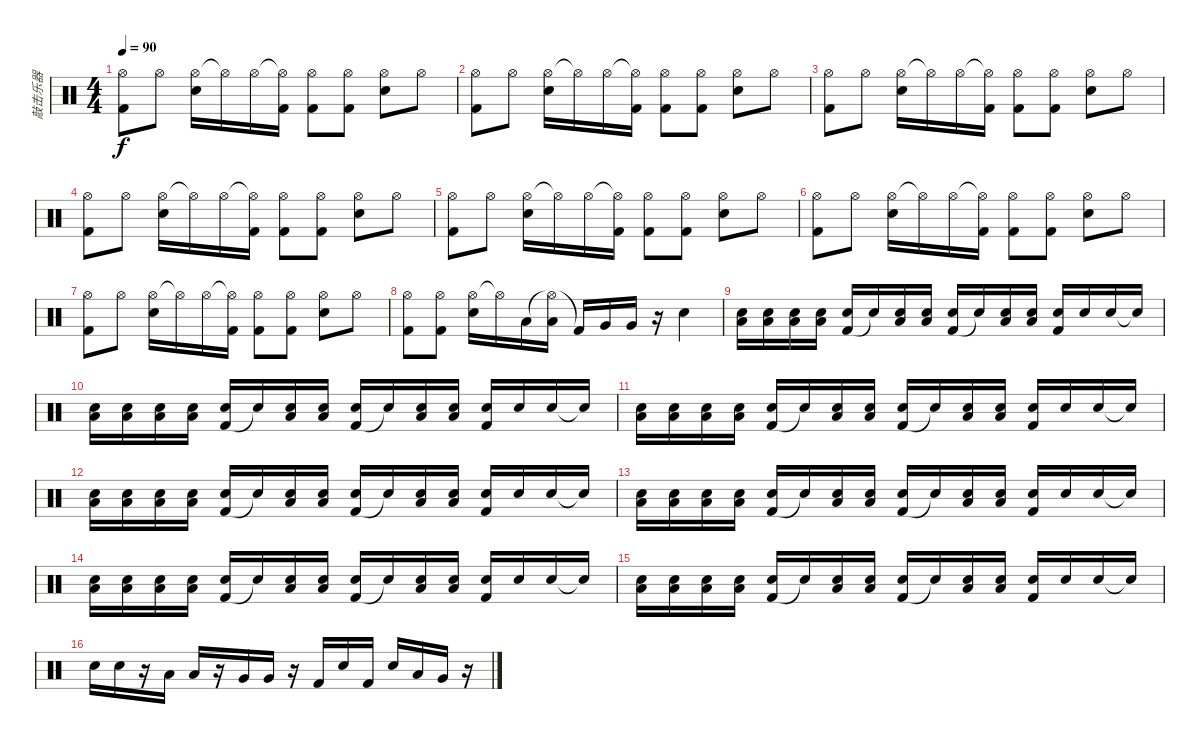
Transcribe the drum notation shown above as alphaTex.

\track ("敲击乐器" "敲击乐器") {instrument percussion}
\staff {score}
\articulation defaults
\ts (4 4)
\tempo 90
\clef neutral
\ks c
("Hi-Hat (open)" "Kick (hit) 2").8{dy f} "Hi-Hat (open)".8 ("Hi-Hat (open)" "Electric Snare (hit)").16 "Hi-Hat (open)"{t}.16 "Hi-Hat (open)".16 ("Hi-Hat (open)"{t} "Kick (hit) 2").16 ("Hi-Hat (open)" "Kick (hit) 2").8 ("Hi-Hat (open)" "Kick (hit) 2").8 ("Hi-Hat (open)" "Electric Snare (hit)").8 "Hi-Hat (open)".8 |
("Hi-Hat (open)" "Kick (hit) 2").8 "Hi-Hat (open)".8 ("Hi-Hat (open)" "Electric Snare (hit)").16 "Hi-Hat (open)"{t}.16 "Hi-Hat (open)".16 ("Hi-Hat (open)"{t} "Kick (hit) 2").16 ("Hi-Hat (open)" "Kick (hit) 2").8 ("Hi-Hat (open)" "Kick (hit) 2").8 ("Hi-Hat (open)" "Electric Snare (hit)").8 "Hi-Hat (open)".8 |
("Hi-Hat (open)" "Kick (hit) 2").8 "Hi-Hat (open)".8 ("Hi-Hat (open)" "Electric Snare (hit)").16 "Hi-Hat (open)"{t}.16 "Hi-Hat (open)".16 ("Hi-Hat (open)"{t} "Kick (hit) 2").16 ("Hi-Hat (open)" "Kick (hit) 2").8 ("Hi-Hat (open)" "Kick (hit) 2").8 ("Hi-Hat (open)" "Electric Snare (hit)").8 "Hi-Hat (open)".8 |
("Hi-Hat (open)" "Kick (hit) 2").8 "Hi-Hat (open)".8 ("Hi-Hat (open)" "Electric Snare (hit)").16 "Hi-Hat (open)"{t}.16 "Hi-Hat (open)".16 ("Hi-Hat (open)"{t} "Kick (hit) 2").16 ("Hi-Hat (open)" "Kick (hit) 2").8 ("Hi-Hat (open)" "Kick (hit) 2").8 ("Hi-Hat (open)" "Electric Snare (hit)").8 "Hi-Hat (open)".8 |
("Hi-Hat (open)" "Kick (hit) 2").8 "Hi-Hat (open)".8 ("Hi-Hat (open)" "Electric Snare (hit)").16 "Hi-Hat (open)"{t}.16 "Hi-Hat (open)".16 ("Hi-Hat (open)"{t} "Kick (hit) 2").16 ("Hi-Hat (open)" "Kick (hit) 2").8 ("Hi-Hat (open)" "Kick (hit) 2").8 ("Hi-Hat (open)" "Electric Snare (hit)").8 "Hi-Hat (open)".8 |
("Hi-Hat (open)" "Kick (hit) 2").8 "Hi-Hat (open)".8 ("Hi-Hat (open)" "Electric Snare (hit)").16 "Hi-Hat (open)"{t}.16 "Hi-Hat (open)".16 ("Hi-Hat (open)"{t} "Kick (hit) 2").16 ("Hi-Hat (open)" "Kick (hit) 2").8 ("Hi-Hat (open)" "Kick (hit) 2").8 ("Hi-Hat (open)" "Electric Snare (hit)").8 "Hi-Hat (open)".8 |
("Hi-Hat (open)" "Kick (hit) 2").8 "Hi-Hat (open)".8 ("Hi-Hat (open)" "Electric Snare (hit)").16 "Hi-Hat (open)"{t}.16 "Hi-Hat (open)".16 ("Hi-Hat (open)"{t} "Kick (hit) 2").16 ("Hi-Hat (open)" "Kick (hit) 2").8 ("Hi-Hat (open)" "Kick (hit) 2").8 ("Hi-Hat (open)" "Electric Snare (hit)").8 "Hi-Hat (open)".8 |
("Hi-Hat (open)" "Kick (hit) 2").8 ("Hi-Hat (open)" "Kick (hit) 2").8 ("Hi-Hat (open)" "Electric Snare (hit)").16 "Hi-Hat (open)"{t}.16 "Low Tom (hit)".16 ("Hi-Hat (open)"{t} "Low Tom (hit)").16 "Kick (hit) 2"{t}.16 "Very Low Tom (hit)".16 "Very Low Tom (hit)".16 r.16 "Electric Snare (hit)".4 |
("Low Floor Tom (hit)" "Electric Snare (hit)").16 ("Low Floor Tom (hit)" "Electric Snare (hit)").16 ("Low Floor Tom (hit)" "Electric Snare (hit)").16 ("Low Floor Tom (hit)" "Electric Snare (hit)").16 ("Kick (hit) 2" "Electric Snare (hit)").16 "Snare (hit)"{t}.16 ("Low Floor Tom (hit)" "Electric Snare (hit)").16 ("Low Floor Tom (hit)" "Electric Snare (hit)").16 ("Kick (hit) 2" "Electric Snare (hit)").16 "Snare (hit)"{t}.16 ("Low Floor Tom (hit)" "Electric Snare (hit)").16 ("Low Floor Tom (hit)" "Electric Snare (hit)").16 ("Kick (hit) 2" "Electric Snare (hit)").16 "Electric Snare (hit)".16 "Electric Snare (hit)".16 "Snare (hit)"{t}.16 |
("Low Floor Tom (hit)" "Electric Snare (hit)").16 ("Low Floor Tom (hit)" "Electric Snare (hit)").16 ("Low Floor Tom (hit)" "Electric Snare (hit)").16 ("Low Floor Tom (hit)" "Electric Snare (hit)").16 ("Kick (hit) 2" "Electric Snare (hit)").16 "Snare (hit)"{t}.16 ("Low Floor Tom (hit)" "Electric Snare (hit)").16 ("Low Floor Tom (hit)" "Electric Snare (hit)").16 ("Kick (hit) 2" "Electric Snare (hit)").16 "Snare (hit)"{t}.16 ("Low Floor Tom (hit)" "Electric Snare (hit)").16 ("Low Floor Tom (hit)" "Electric Snare (hit)").16 ("Kick (hit) 2" "Electric Snare (hit)").16 "Electric Snare (hit)".16 "Electric Snare (hit)".16 "Snare (hit)"{t}.16 |
("Low Floor Tom (hit)" "Electric Snare (hit)").16 ("Low Floor Tom (hit)" "Electric Snare (hit)").16 ("Low Floor Tom (hit)" "Electric Snare (hit)").16 ("Low Floor Tom (hit)" "Electric Snare (hit)").16 ("Kick (hit) 2" "Electric Snare (hit)").16 "Snare (hit)"{t}.16 ("Low Floor Tom (hit)" "Electric Snare (hit)").16 ("Low Floor Tom (hit)" "Electric Snare (hit)").16 ("Kick (hit) 2" "Electric Snare (hit)").16 "Snare (hit)"{t}.16 ("Low Floor Tom (hit)" "Electric Snare (hit)").16 ("Low Floor Tom (hit)" "Electric Snare (hit)").16 ("Kick (hit) 2" "Electric Snare (hit)").16 "Electric Snare (hit)".16 "Electric Snare (hit)".16 "Snare (hit)"{t}.16 |
("Low Floor Tom (hit)" "Electric Snare (hit)").16 ("Low Floor Tom (hit)" "Electric Snare (hit)").16 ("Low Floor Tom (hit)" "Electric Snare (hit)").16 ("Low Floor Tom (hit)" "Electric Snare (hit)").16 ("Kick (hit) 2" "Electric Snare (hit)").16 "Snare (hit)"{t}.16 ("Low Floor Tom (hit)" "Electric Snare (hit)").16 ("Low Floor Tom (hit)" "Electric Snare (hit)").16 ("Kick (hit) 2" "Electric Snare (hit)").16 "Snare (hit)"{t}.16 ("Low Floor Tom (hit)" "Electric Snare (hit)").16 ("Low Floor Tom (hit)" "Electric Snare (hit)").16 ("Kick (hit) 2" "Electric Snare (hit)").16 "Electric Snare (hit)".16 "Electric Snare (hit)".16 "Snare (hit)"{t}.16 |
("Low Floor Tom (hit)" "Electric Snare (hit)").16 ("Low Floor Tom (hit)" "Electric Snare (hit)").16 ("Low Floor Tom (hit)" "Electric Snare (hit)").16 ("Low Floor Tom (hit)" "Electric Snare (hit)").16 ("Kick (hit) 2" "Electric Snare (hit)").16 "Snare (hit)"{t}.16 ("Low Floor Tom (hit)" "Electric Snare (hit)").16 ("Low Floor Tom (hit)" "Electric Snare (hit)").16 ("Kick (hit) 2" "Electric Snare (hit)").16 "Snare (hit)"{t}.16 ("Low Floor Tom (hit)" "Electric Snare (hit)").16 ("Low Floor Tom (hit)" "Electric Snare (hit)").16 ("Kick (hit) 2" "Electric Snare (hit)").16 "Electric Snare (hit)".16 "Electric Snare (hit)".16 "Snare (hit)"{t}.16 |
("Low Floor Tom (hit)" "Electric Snare (hit)").16 ("Low Floor Tom (hit)" "Electric Snare (hit)").16 ("Low Floor Tom (hit)" "Electric Snare (hit)").16 ("Low Floor Tom (hit)" "Electric Snare (hit)").16 ("Kick (hit) 2" "Electric Snare (hit)").16 "Snare (hit)"{t}.16 ("Low Floor Tom (hit)" "Electric Snare (hit)").16 ("Low Floor Tom (hit)" "Electric Snare (hit)").16 ("Kick (hit) 2" "Electric Snare (hit)").16 "Snare (hit)"{t}.16 ("Low Floor Tom (hit)" "Electric Snare (hit)").16 ("Low Floor Tom (hit)" "Electric Snare (hit)").16 ("Kick (hit) 2" "Electric Snare (hit)").16 "Electric Snare (hit)".16 "Electric Snare (hit)".16 "Snare (hit)"{t}.16 |
("Low Floor Tom (hit)" "Electric Snare (hit)").16 ("Low Floor Tom (hit)" "Electric Snare (hit)").16 ("Low Floor Tom (hit)" "Electric Snare (hit)").16 ("Low Floor Tom (hit)" "Electric Snare (hit)").16 ("Kick (hit) 2" "Electric Snare (hit)").16 "Snare (hit)"{t}.16 ("Low Floor Tom (hit)" "Electric Snare (hit)").16 ("Low Floor Tom (hit)" "Electric Snare (hit)").16 ("Kick (hit) 2" "Electric Snare (hit)").16 "Snare (hit)"{t}.16 ("Low Floor Tom (hit)" "Electric Snare (hit)").16 ("Low Floor Tom (hit)" "Electric Snare (hit)").16 ("Kick (hit) 2" "Electric Snare (hit)").16 "Electric Snare (hit)".16 "Electric Snare (hit)".16 "Snare (hit)"{t}.16 |
"Electric Snare (hit)".16 "Electric Snare (hit)".16 r.16 "Low Tom (hit)".16 "Low Tom (hit)".16 r.16 "Very Low Tom (hit)".16 "Very Low Tom (hit)".16 r.16 "Kick (hit) 2".16 "Electric Snare (hit)".16 "Kick (hit) 2".16 "Electric Snare (hit)".16 "Low Tom (hit)".16 "Very Low Tom (hit)".16 r.16
